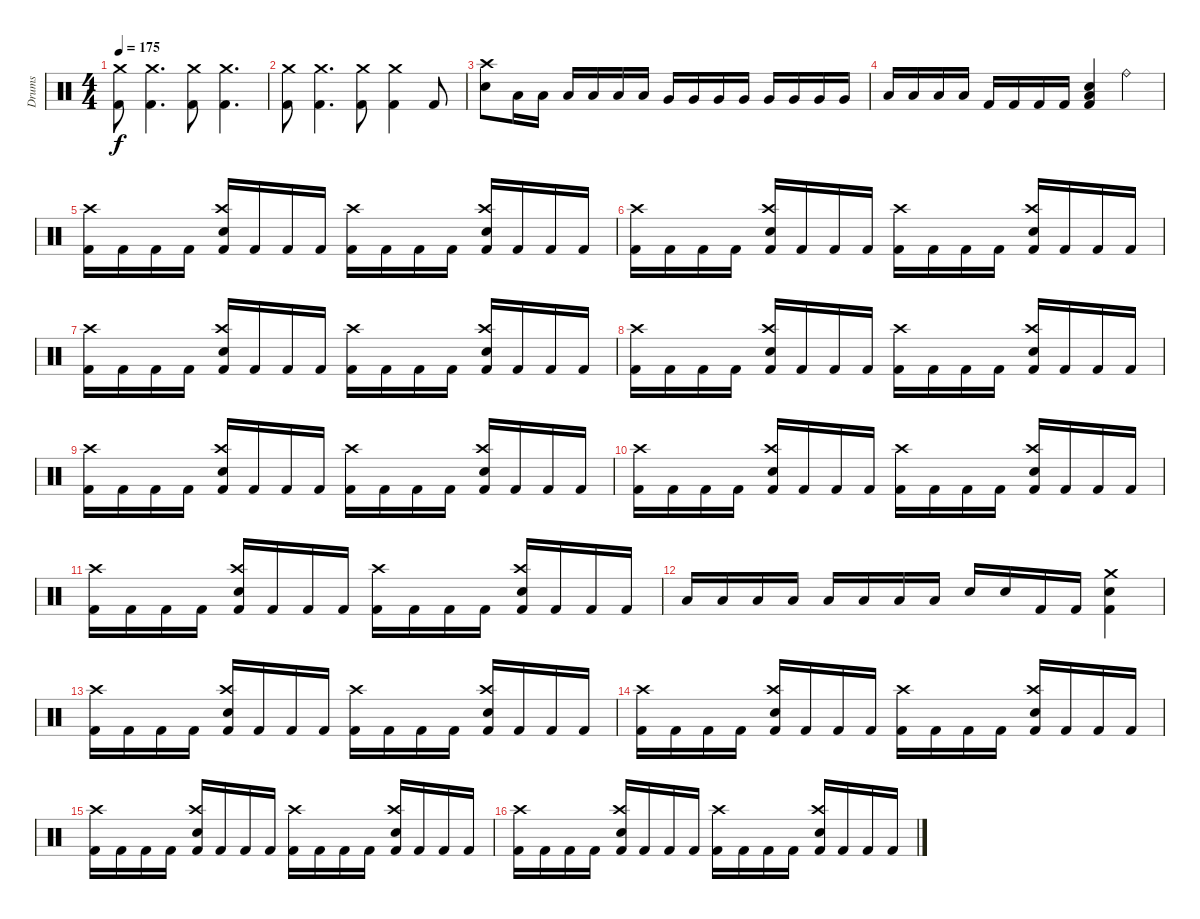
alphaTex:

\track ("Drums" "Drums") {instrument percussion}
\staff {score}
\articulation defaults
\ts (4 4)
\tempo 175
\clef neutral
\ks c
("Crash medium (hit)" "Kick (hit) 2").8{dy f} ("Crash medium (hit)" "Kick (hit) 2").4{d} ("Crash medium (hit)" "Kick (hit) 2").8 ("Crash medium (hit)" "Kick (hit) 2").4{d} |
("Crash medium (hit)" "Kick (hit) 2").8 ("Crash medium (hit)" "Kick (hit) 2").4{d} ("Crash medium (hit)" "Kick (hit) 2").8 ("Crash medium (hit)" "Kick (hit) 2").4 "Kick (hit) 2".8 |
("Crash high (hit)" "Snare (hit) 2").8 "Low Tom (hit)".16 "Low Tom (hit)".16 "Low Tom (hit)".16 "Low Tom (hit)".16 "Low Tom (hit)".16 "Low Tom (hit)".16 "Very Low Tom (hit)".16 "Very Low Tom (hit)".16 "Very Low Tom (hit)".16 "Very Low Tom (hit)".16 "Very Low Tom (hit)".16 "Very Low Tom (hit)".16 "Very Low Tom (hit)".16 "Very Low Tom (hit)".16 |
"Low Floor Tom (hit)".16 "Low Floor Tom (hit)".16 "Low Floor Tom (hit)".16 "Low Floor Tom (hit)".16 "Kick (hit) 2".16 "Kick (hit) 2".16 "Kick (hit) 2".16 "Kick (hit) 2".16 ("Kick (hit) 2" "Low Floor Tom (hit)" "Snare (hit) 2").4 "Ride (bell)".4 |
("Crash high (hit)" "Kick (hit) 2").16 "Kick (hit) 2".16 "Kick (hit) 2".16 "Kick (hit) 2".16 ("Crash high (hit)" "Snare (hit) 2" "Kick (hit) 2").16 "Kick (hit) 2".16 "Kick (hit) 2".16 "Kick (hit) 2".16 ("Crash high (hit)" "Kick (hit) 2").16 "Kick (hit) 2".16 "Kick (hit) 2".16 "Kick (hit) 2".16 ("Crash high (hit)" "Snare (hit) 2" "Kick (hit) 2").16 "Kick (hit) 2".16 "Kick (hit) 2".16 "Kick (hit) 2".16 |
("Crash high (hit)" "Kick (hit) 2").16 "Kick (hit) 2".16 "Kick (hit) 2".16 "Kick (hit) 2".16 ("Crash high (hit)" "Snare (hit) 2" "Kick (hit) 2").16 "Kick (hit) 2".16 "Kick (hit) 2".16 "Kick (hit) 2".16 ("Crash high (hit)" "Kick (hit) 2").16 "Kick (hit) 2".16 "Kick (hit) 2".16 "Kick (hit) 2".16 ("Crash high (hit)" "Snare (hit) 2" "Kick (hit) 2").16 "Kick (hit) 2".16 "Kick (hit) 2".16 "Kick (hit) 2".16 |
("Crash high (hit)" "Kick (hit) 2").16 "Kick (hit) 2".16 "Kick (hit) 2".16 "Kick (hit) 2".16 ("Crash high (hit)" "Snare (hit) 2" "Kick (hit) 2").16 "Kick (hit) 2".16 "Kick (hit) 2".16 "Kick (hit) 2".16 ("Crash high (hit)" "Kick (hit) 2").16 "Kick (hit) 2".16 "Kick (hit) 2".16 "Kick (hit) 2".16 ("Crash high (hit)" "Snare (hit) 2" "Kick (hit) 2").16 "Kick (hit) 2".16 "Kick (hit) 2".16 "Kick (hit) 2".16 |
("Crash high (hit)" "Kick (hit) 2").16 "Kick (hit) 2".16 "Kick (hit) 2".16 "Kick (hit) 2".16 ("Crash high (hit)" "Snare (hit) 2" "Kick (hit) 2").16 "Kick (hit) 2".16 "Kick (hit) 2".16 "Kick (hit) 2".16 ("Crash high (hit)" "Kick (hit) 2").16 "Kick (hit) 2".16 "Kick (hit) 2".16 "Kick (hit) 2".16 ("Crash high (hit)" "Snare (hit) 2" "Kick (hit) 2").16 "Kick (hit) 2".16 "Kick (hit) 2".16 "Kick (hit) 2".16 |
("Crash high (hit)" "Kick (hit) 2").16 "Kick (hit) 2".16 "Kick (hit) 2".16 "Kick (hit) 2".16 ("Crash high (hit)" "Snare (hit) 2" "Kick (hit) 2").16 "Kick (hit) 2".16 "Kick (hit) 2".16 "Kick (hit) 2".16 ("Crash high (hit)" "Kick (hit) 2").16 "Kick (hit) 2".16 "Kick (hit) 2".16 "Kick (hit) 2".16 ("Crash high (hit)" "Snare (hit) 2" "Kick (hit) 2").16 "Kick (hit) 2".16 "Kick (hit) 2".16 "Kick (hit) 2".16 |
("Crash high (hit)" "Kick (hit) 2").16 "Kick (hit) 2".16 "Kick (hit) 2".16 "Kick (hit) 2".16 ("Crash high (hit)" "Snare (hit) 2" "Kick (hit) 2").16 "Kick (hit) 2".16 "Kick (hit) 2".16 "Kick (hit) 2".16 ("Crash high (hit)" "Kick (hit) 2").16 "Kick (hit) 2".16 "Kick (hit) 2".16 "Kick (hit) 2".16 ("Crash high (hit)" "Snare (hit) 2" "Kick (hit) 2").16 "Kick (hit) 2".16 "Kick (hit) 2".16 "Kick (hit) 2".16 |
("Crash high (hit)" "Kick (hit) 2").16 "Kick (hit) 2".16 "Kick (hit) 2".16 "Kick (hit) 2".16 ("Crash high (hit)" "Snare (hit) 2" "Kick (hit) 2").16 "Kick (hit) 2".16 "Kick (hit) 2".16 "Kick (hit) 2".16 ("Crash high (hit)" "Kick (hit) 2").16 "Kick (hit) 2".16 "Kick (hit) 2".16 "Kick (hit) 2".16 ("Crash high (hit)" "Snare (hit) 2" "Kick (hit) 2").16 "Kick (hit) 2".16 "Kick (hit) 2".16 "Kick (hit) 2".16 |
"Low Tom (hit)".16 "Low Tom (hit)".16 "Low Tom (hit)".16 "Low Tom (hit)".16 "Low Tom (hit)".16 "Low Tom (hit)".16 "Low Tom (hit)".16 "Low Tom (hit)".16 "Snare (hit) 2".16 "Snare (hit) 2".16 "Kick (hit) 2".16 "Kick (hit) 2".16 ("Crash medium (hit)" "Kick (hit) 2" "Snare (hit) 2").4 |
("Crash high (hit)" "Kick (hit) 2").16 "Kick (hit) 2".16 "Kick (hit) 2".16 "Kick (hit) 2".16 ("Crash high (hit)" "Snare (hit) 2" "Kick (hit) 2").16 "Kick (hit) 2".16 "Kick (hit) 2".16 "Kick (hit) 2".16 ("Crash high (hit)" "Kick (hit) 2").16 "Kick (hit) 2".16 "Kick (hit) 2".16 "Kick (hit) 2".16 ("Crash high (hit)" "Snare (hit) 2" "Kick (hit) 2").16 "Kick (hit) 2".16 "Kick (hit) 2".16 "Kick (hit) 2".16 |
("Crash high (hit)" "Kick (hit) 2").16 "Kick (hit) 2".16 "Kick (hit) 2".16 "Kick (hit) 2".16 ("Crash high (hit)" "Snare (hit) 2" "Kick (hit) 2").16 "Kick (hit) 2".16 "Kick (hit) 2".16 "Kick (hit) 2".16 ("Crash high (hit)" "Kick (hit) 2").16 "Kick (hit) 2".16 "Kick (hit) 2".16 "Kick (hit) 2".16 ("Crash high (hit)" "Snare (hit) 2" "Kick (hit) 2").16 "Kick (hit) 2".16 "Kick (hit) 2".16 "Kick (hit) 2".16 |
("Crash high (hit)" "Kick (hit) 2").16 "Kick (hit) 2".16 "Kick (hit) 2".16 "Kick (hit) 2".16 ("Crash high (hit)" "Snare (hit) 2" "Kick (hit) 2").16 "Kick (hit) 2".16 "Kick (hit) 2".16 "Kick (hit) 2".16 ("Crash high (hit)" "Kick (hit) 2").16 "Kick (hit) 2".16 "Kick (hit) 2".16 "Kick (hit) 2".16 ("Crash high (hit)" "Snare (hit) 2" "Kick (hit) 2").16 "Kick (hit) 2".16 "Kick (hit) 2".16 "Kick (hit) 2".16 |
("Crash high (hit)" "Kick (hit) 2").16 "Kick (hit) 2".16 "Kick (hit) 2".16 "Kick (hit) 2".16 ("Crash high (hit)" "Snare (hit) 2" "Kick (hit) 2").16 "Kick (hit) 2".16 "Kick (hit) 2".16 "Kick (hit) 2".16 ("Crash high (hit)" "Kick (hit) 2").16 "Kick (hit) 2".16 "Kick (hit) 2".16 "Kick (hit) 2".16 ("Crash high (hit)" "Snare (hit) 2" "Kick (hit) 2").16 "Kick (hit) 2".16 "Kick (hit) 2".16 "Kick (hit) 2".16
